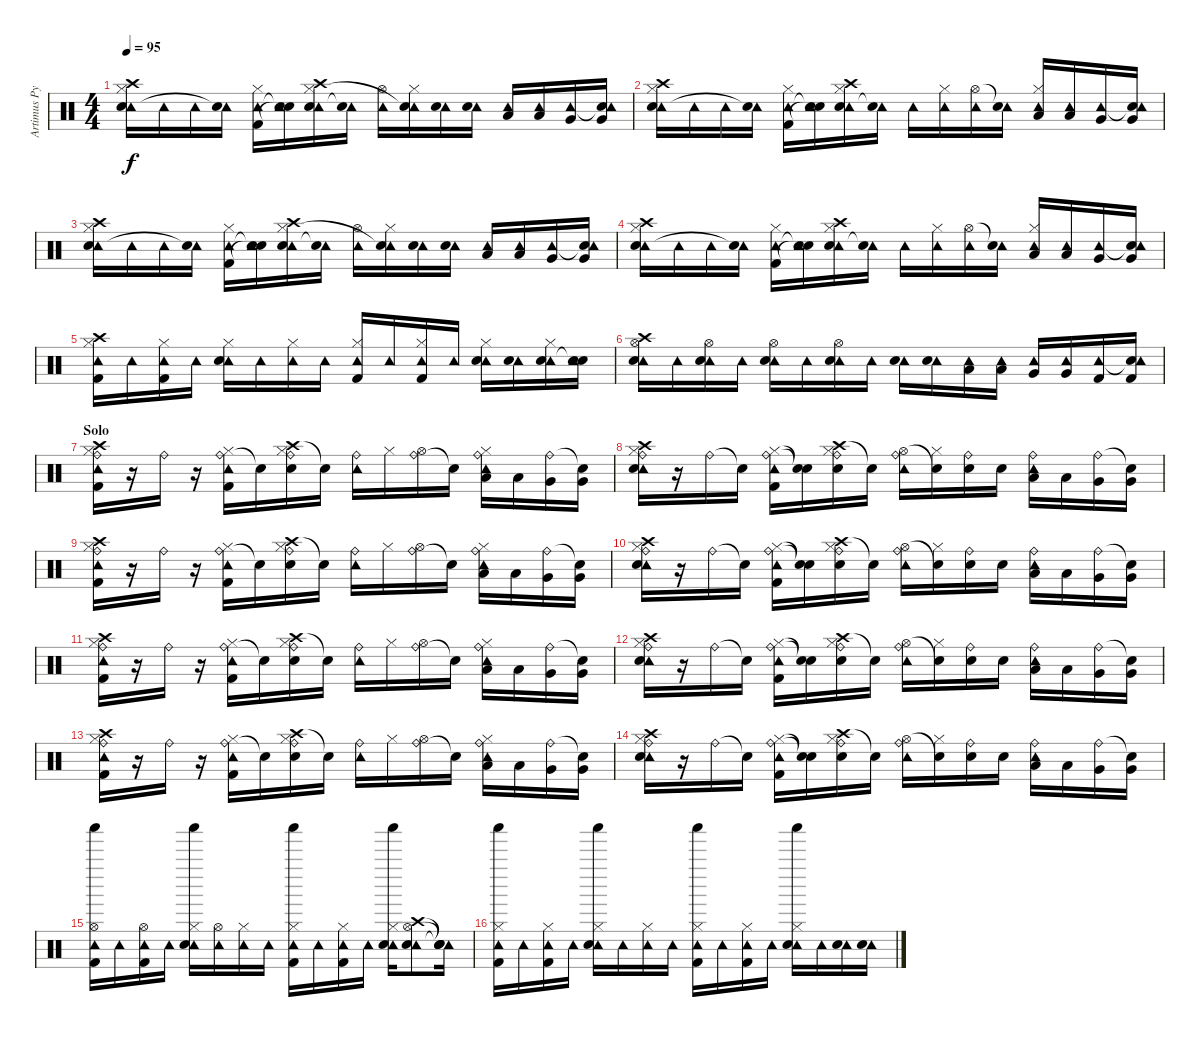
\track ("Artimus Pyle" "Artimus Py") {instrument percussion}
\staff {score}
\articulation defaults
\ts (4 4)
\tempo 95
\clef neutral
\ks c
("Crash high (hit)" "Tambourine (hit)" "Hi-Hat (closed)" "Snare (hit) 2").16{dy f} "Tambourine (hit)".16 "Tambourine (hit)".16 ("Tambourine (hit)" "Snare (hit)"{t}).16 ("Tambourine (hit)" "Hi-Hat (closed)" "Kick (hit) 2").16 ("Snare (hit)"{t} "Tambourine (hit)" "Snare (hit)"{t}).16 ("Crash high (hit)" "Tambourine (hit)" "Hi-Hat (closed)" "Snare (hit) 2").16 ("Tambourine (hit)" "Snare (hit)"{t}).16 ("Tambourine (hit)" "Hi-Hat (open)").16 ("Tambourine (hit)" "Hi-Hat (closed)" "Snare (hit)"{t}).16 ("Tambourine (hit)" "Electric Snare (hit)").16 ("Tambourine (hit)" "Electric Snare (hit)").16 ("Tambourine (hit)" "Low Tom (hit)").16 ("Tambourine (hit)" "Low Tom (hit)").16 ("Tambourine (hit)" "Very Low Tom (hit)").16 ("Snare (hit)"{t} "Tambourine (hit)" "Very Low Tom (hit)").16 |
("Crash high (hit)" "Tambourine (hit)" "Hi-Hat (closed)" "Snare (hit) 2").16 "Tambourine (hit)".16 "Tambourine (hit)".16 ("Tambourine (hit)" "Snare (hit)"{t}).16 ("Tambourine (hit)" "Hi-Hat (closed)" "Kick (hit) 2").16 ("Snare (hit)"{t} "Tambourine (hit)" "Snare (hit)"{t}).16 ("Crash high (hit)" "Tambourine (hit)" "Hi-Hat (closed)" "Snare (hit) 2").16 ("Tambourine (hit)" "Snare (hit)"{t}).16 "Tambourine (hit)".16 ("Tambourine (hit)" "Hi-Hat (closed)").16 ("Tambourine (hit)" "Hi-Hat (open)").16 ("Tambourine (hit)" "Snare (hit)"{t}).16 ("Tambourine (hit)" "Hi-Hat (closed)" "Low Tom (hit)").16 ("Tambourine (hit)" "Low Tom (hit)").16 ("Tambourine (hit)" "Very Low Tom (hit)").16 ("Snare (hit)"{t} "Tambourine (hit)" "Very Low Tom (hit)").16 |
("Crash high (hit)" "Tambourine (hit)" "Hi-Hat (closed)" "Snare (hit) 2").16 "Tambourine (hit)".16 "Tambourine (hit)".16 ("Tambourine (hit)" "Snare (hit)"{t}).16 ("Tambourine (hit)" "Hi-Hat (closed)" "Kick (hit) 2").16 ("Snare (hit)"{t} "Tambourine (hit)" "Snare (hit)"{t}).16 ("Crash high (hit)" "Tambourine (hit)" "Hi-Hat (closed)" "Snare (hit) 2").16 ("Tambourine (hit)" "Snare (hit)"{t}).16 ("Tambourine (hit)" "Hi-Hat (open)").16 ("Tambourine (hit)" "Hi-Hat (closed)" "Snare (hit)"{t}).16 ("Tambourine (hit)" "Electric Snare (hit)").16 ("Tambourine (hit)" "Electric Snare (hit)").16 ("Tambourine (hit)" "Low Tom (hit)").16 ("Tambourine (hit)" "Low Tom (hit)").16 ("Tambourine (hit)" "Very Low Tom (hit)").16 ("Snare (hit)"{t} "Tambourine (hit)" "Very Low Tom (hit)").16 |
("Crash high (hit)" "Tambourine (hit)" "Hi-Hat (closed)" "Snare (hit) 2").16 "Tambourine (hit)".16 "Tambourine (hit)".16 ("Tambourine (hit)" "Snare (hit)"{t}).16 ("Tambourine (hit)" "Hi-Hat (closed)" "Kick (hit) 2").16 ("Snare (hit)"{t} "Tambourine (hit)" "Snare (hit)"{t}).16 ("Crash high (hit)" "Tambourine (hit)" "Hi-Hat (closed)" "Snare (hit) 2").16 ("Tambourine (hit)" "Snare (hit)"{t}).16 "Tambourine (hit)".16 ("Tambourine (hit)" "Hi-Hat (closed)").16 ("Tambourine (hit)" "Hi-Hat (open)").16 ("Tambourine (hit)" "Snare (hit)"{t}).16 ("Tambourine (hit)" "Hi-Hat (closed)" "Low Tom (hit)").16 ("Tambourine (hit)" "Low Tom (hit)").16 ("Tambourine (hit)" "Very Low Tom (hit)").16 ("Snare (hit)"{t} "Tambourine (hit)" "Very Low Tom (hit)").16 |
("Crash high (hit)" "Tambourine (hit)" "Hi-Hat (closed)" "Kick (hit) 2").16 "Tambourine (hit)".16 ("Tambourine (hit)" "Hi-Hat (closed)" "Kick (hit) 2").16 "Tambourine (hit)".16 ("Tambourine (hit)" "Hi-Hat (closed)" "Electric Snare (hit)").16 "Tambourine (hit)".16 ("Tambourine (hit)" "Hi-Hat (closed)").16 "Tambourine (hit)".16 ("Tambourine (hit)" "Hi-Hat (closed)" "Kick (hit) 2").16 "Tambourine (hit)".16 ("Tambourine (hit)" "Hi-Hat (closed)" "Kick (hit) 2").16 "Tambourine (hit)".16 ("Tambourine (hit)" "Hi-Hat (closed)" "Electric Snare (hit)").16 ("Tambourine (hit)" "Electric Snare (hit)").16 ("Tambourine (hit)" "Hi-Hat (closed)" "Electric Snare (hit)").16 ("Snare (hit)"{t} "Tambourine (hit)" "Electric Snare (hit)").16 |
("Crash high (hit)" "Tambourine (hit)" "Hi-Hat (open)" "Electric Snare (hit)").16 "Tambourine (hit)".16 ("Tambourine (hit)" "Hi-Hat (open)" "Electric Snare (hit)").16 "Tambourine (hit)".16 ("Tambourine (hit)" "Hi-Hat (open)" "Electric Snare (hit)").16 "Tambourine (hit)".16 ("Tambourine (hit)" "Hi-Hat (open)" "Electric Snare (hit)").16 "Tambourine (hit)".16 ("Tambourine (hit)" "Electric Snare (hit)").16 ("Tambourine (hit)" "Electric Snare (hit)").16 ("Tambourine (hit)" "Low Tom (hit)").16 ("Tambourine (hit)" "Low Tom (hit)").16 ("Tambourine (hit)" "Very Low Tom (hit)").16 ("Tambourine (hit)" "Very Low Tom (hit)").16 ("Tambourine (hit)" "Kick (hit) 2").16 ("Snare (hit)"{t} "Tambourine (hit)" "Kick (hit) 2").16 |
\section ("" "Solo")
("Crash high (hit)" "Ride (bell)" "Hi-Hat (closed)" "Tambourine (hit)" "Kick (hit) 2").16 r.16 "Ride (bell)".16 r.16 ("Ride (bell)" "Hi-Hat (closed)" "Tambourine (hit)" "Kick (hit) 2").16 "Snare (hit)"{t}.16 ("Crash high (hit)" "Ride (bell)" "Hi-Hat (closed)" "Snare (hit) 2").16 "Snare (hit)"{t}.16 ("Ride (bell)" "Tambourine (hit)").16 "Hi-Hat (closed)".16 ("Ride (bell)" "Hi-Hat (open)").16 "Snare (hit)"{t}.16 ("Ride (bell)" "Hi-Hat (closed)" "Tambourine (hit)" "Low Tom (hit)").16 "Low Tom (hit)".16 ("Ride (bell)" "Very Low Tom (hit)").16 ("Snare (hit)"{t} "Very Low Tom (hit)").16 |
("Crash high (hit)" "Ride (bell)" "Hi-Hat (closed)" "Tambourine (hit)" "Snare (hit) 2").16 r.16 "Ride (bell)".16 "Snare (hit)"{t}.16 ("Ride (bell)" "Hi-Hat (closed)" "Tambourine (hit)" "Kick (hit) 2").16 ("Snare (hit)"{t} "Snare (hit)"{t}).16 ("Crash high (hit)" "Ride (bell)" "Hi-Hat (closed)" "Snare (hit) 2").16 "Snare (hit)"{t}.16 ("Ride (bell)" "Hi-Hat (open)" "Tambourine (hit)").16 ("Hi-Hat (closed)" "Snare (hit)"{t}).16 ("Ride (bell)" "Electric Snare (hit)").16 "Electric Snare (hit)".16 ("Ride (bell)" "Tambourine (hit)" "Low Tom (hit)").16 "Low Tom (hit)".16 ("Ride (bell)" "Very Low Tom (hit)").16 ("Snare (hit)"{t} "Very Low Tom (hit)").16 |
("Crash high (hit)" "Ride (bell)" "Hi-Hat (closed)" "Tambourine (hit)" "Kick (hit) 2").16 r.16 "Ride (bell)".16 r.16 ("Ride (bell)" "Hi-Hat (closed)" "Tambourine (hit)" "Kick (hit) 2").16 "Snare (hit)"{t}.16 ("Crash high (hit)" "Ride (bell)" "Hi-Hat (closed)" "Snare (hit) 2").16 "Snare (hit)"{t}.16 ("Ride (bell)" "Tambourine (hit)").16 "Hi-Hat (closed)".16 ("Ride (bell)" "Hi-Hat (open)").16 "Snare (hit)"{t}.16 ("Ride (bell)" "Hi-Hat (closed)" "Tambourine (hit)" "Low Tom (hit)").16 "Low Tom (hit)".16 ("Ride (bell)" "Very Low Tom (hit)").16 ("Snare (hit)"{t} "Very Low Tom (hit)").16 |
("Crash high (hit)" "Ride (bell)" "Hi-Hat (closed)" "Tambourine (hit)" "Snare (hit) 2").16 r.16 "Ride (bell)".16 "Snare (hit)"{t}.16 ("Ride (bell)" "Hi-Hat (closed)" "Tambourine (hit)" "Kick (hit) 2").16 ("Snare (hit)"{t} "Snare (hit)"{t}).16 ("Crash high (hit)" "Ride (bell)" "Hi-Hat (closed)" "Snare (hit) 2").16 "Snare (hit)"{t}.16 ("Ride (bell)" "Hi-Hat (open)" "Tambourine (hit)").16 ("Hi-Hat (closed)" "Snare (hit)"{t}).16 ("Ride (bell)" "Electric Snare (hit)").16 "Electric Snare (hit)".16 ("Ride (bell)" "Tambourine (hit)" "Low Tom (hit)").16 "Low Tom (hit)".16 ("Ride (bell)" "Very Low Tom (hit)").16 ("Snare (hit)"{t} "Very Low Tom (hit)").16 |
("Crash high (hit)" "Ride (bell)" "Hi-Hat (closed)" "Tambourine (hit)" "Kick (hit) 2").16 r.16 "Ride (bell)".16 r.16 ("Ride (bell)" "Hi-Hat (closed)" "Tambourine (hit)" "Kick (hit) 2").16 "Snare (hit)"{t}.16 ("Crash high (hit)" "Ride (bell)" "Hi-Hat (closed)" "Snare (hit) 2").16 "Snare (hit)"{t}.16 ("Ride (bell)" "Tambourine (hit)").16 "Hi-Hat (closed)".16 ("Ride (bell)" "Hi-Hat (open)").16 "Snare (hit)"{t}.16 ("Ride (bell)" "Hi-Hat (closed)" "Tambourine (hit)" "Low Tom (hit)").16 "Low Tom (hit)".16 ("Ride (bell)" "Very Low Tom (hit)").16 ("Snare (hit)"{t} "Very Low Tom (hit)").16 |
("Crash high (hit)" "Ride (bell)" "Hi-Hat (closed)" "Tambourine (hit)" "Snare (hit) 2").16 r.16 "Ride (bell)".16 "Snare (hit)"{t}.16 ("Ride (bell)" "Hi-Hat (closed)" "Tambourine (hit)" "Kick (hit) 2").16 ("Snare (hit)"{t} "Snare (hit)"{t}).16 ("Crash high (hit)" "Ride (bell)" "Hi-Hat (closed)" "Snare (hit) 2").16 "Snare (hit)"{t}.16 ("Ride (bell)" "Hi-Hat (open)" "Tambourine (hit)").16 ("Hi-Hat (closed)" "Snare (hit)"{t}).16 ("Ride (bell)" "Electric Snare (hit)").16 "Electric Snare (hit)".16 ("Ride (bell)" "Tambourine (hit)" "Low Tom (hit)").16 "Low Tom (hit)".16 ("Ride (bell)" "Very Low Tom (hit)").16 ("Snare (hit)"{t} "Very Low Tom (hit)").16 |
("Crash high (hit)" "Ride (bell)" "Hi-Hat (closed)" "Tambourine (hit)" "Kick (hit) 2").16 r.16 "Ride (bell)".16 r.16 ("Ride (bell)" "Hi-Hat (closed)" "Tambourine (hit)" "Kick (hit) 2").16 "Snare (hit)"{t}.16 ("Crash high (hit)" "Ride (bell)" "Hi-Hat (closed)" "Snare (hit) 2").16 "Snare (hit)"{t}.16 ("Ride (bell)" "Tambourine (hit)").16 "Hi-Hat (closed)".16 ("Ride (bell)" "Hi-Hat (open)").16 "Snare (hit)"{t}.16 ("Ride (bell)" "Hi-Hat (closed)" "Tambourine (hit)" "Low Tom (hit)").16 "Low Tom (hit)".16 ("Ride (bell)" "Very Low Tom (hit)").16 ("Snare (hit)"{t} "Very Low Tom (hit)").16 |
("Crash high (hit)" "Ride (bell)" "Hi-Hat (closed)" "Tambourine (hit)" "Snare (hit) 2").16 r.16 "Ride (bell)".16 "Snare (hit)"{t}.16 ("Ride (bell)" "Hi-Hat (closed)" "Tambourine (hit)" "Kick (hit) 2").16 ("Snare (hit)"{t} "Snare (hit)"{t}).16 ("Crash high (hit)" "Ride (bell)" "Hi-Hat (closed)" "Snare (hit) 2").16 "Snare (hit)"{t}.16 ("Ride (bell)" "Hi-Hat (open)" "Tambourine (hit)").16 ("Hi-Hat (closed)" "Snare (hit)"{t}).16 ("Ride (bell)" "Electric Snare (hit)").16 "Electric Snare (hit)".16 ("Ride (bell)" "Tambourine (hit)" "Low Tom (hit)").16 "Low Tom (hit)".16 ("Ride (bell)" "Very Low Tom (hit)").16 ("Snare (hit)"{t} "Very Low Tom (hit)").16 |
("Tambourine (hit)" "Shaker (hit)" "Hi-Hat (open)" "Kick (hit) 2").16 "Tambourine (hit)".16 ("Tambourine (hit)" "Hi-Hat (open)" "Kick (hit) 2").16 "Tambourine (hit)".16 ("Tambourine (hit)" "Shaker (hit)" "Hi-Hat (closed)" "Electric Snare (hit)").16 ("Tambourine (hit)" "Hi-Hat (open)").16 ("Tambourine (hit)" "Hi-Hat (closed)").16 "Tambourine (hit)".16 ("Tambourine (hit)" "Shaker (hit)" "Hi-Hat (closed)" "Kick (hit) 2").16 "Tambourine (hit)".16 ("Tambourine (hit)" "Hi-Hat (closed)" "Kick (hit) 2").16 "Tambourine (hit)".16 ("Tambourine (hit)" "Shaker (hit)" "Hi-Hat (closed)" "Electric Snare (hit)").16 ("Tambourine (hit)" "Crash high (hit)" "Hi-Hat (open)" "Electric Snare (hit)").8 ("Tambourine (hit)" "Snare (hit)"{t} "Snare (hit)"{t} "Snare (hit)"{t}).16 |
("Tambourine (hit)" "Shaker (hit)" "Hi-Hat (closed)" "Kick (hit) 2").16 "Tambourine (hit)".16 ("Tambourine (hit)" "Hi-Hat (closed)" "Kick (hit) 2").16 "Tambourine (hit)".16 ("Tambourine (hit)" "Shaker (hit)" "Hi-Hat (closed)" "Electric Snare (hit)").16 "Tambourine (hit)".16 ("Tambourine (hit)" "Hi-Hat (closed)").16 "Tambourine (hit)".16 ("Tambourine (hit)" "Shaker (hit)" "Hi-Hat (closed)" "Kick (hit) 2").16 "Tambourine (hit)".16 ("Tambourine (hit)" "Hi-Hat (closed)" "Kick (hit) 2").16 "Tambourine (hit)".16 ("Tambourine (hit)" "Shaker (hit)" "Hi-Hat (closed)" "Electric Snare (hit)").16 "Tambourine (hit)".16 ("Tambourine (hit)" "Electric Snare (hit)").16 ("Tambourine (hit)" "Electric Snare (hit)").16
